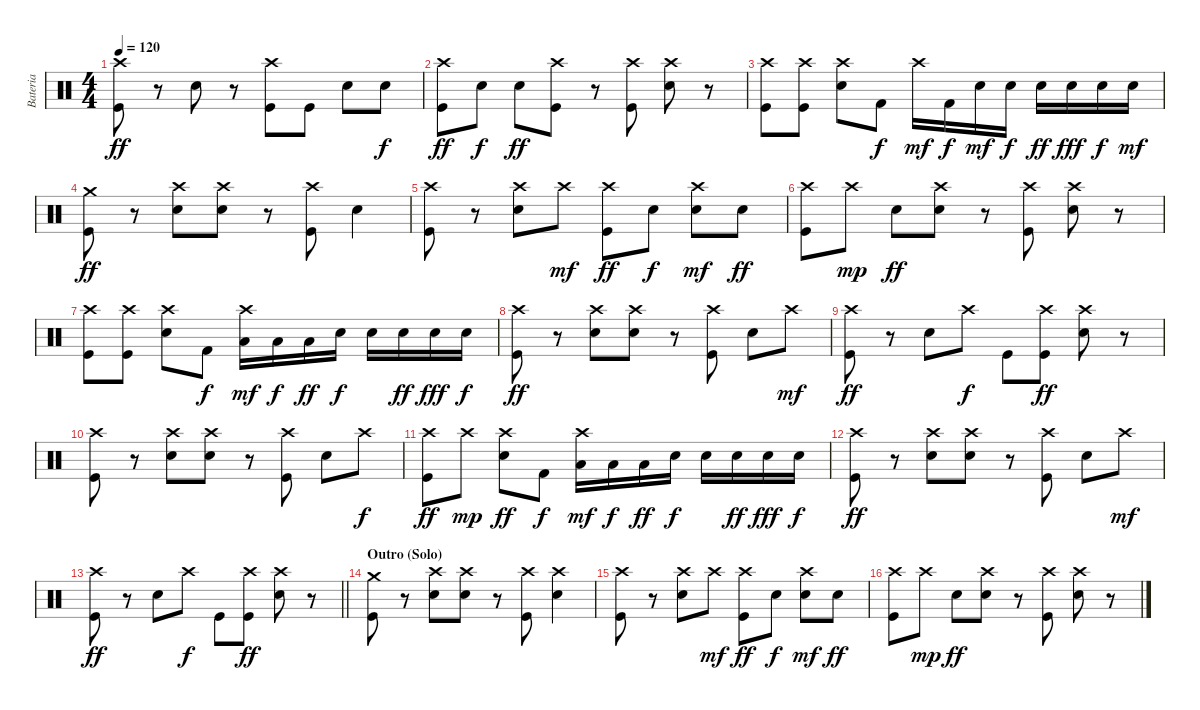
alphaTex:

\track ("Bateria" "Bateria") {instrument percussion}
\staff {score}
\articulation defaults
\ts (4 4)
\tempo 120
\clef neutral
\ks c
("Crash high (hit)" "Kick (hit)").8{dy ff} r.8 "Snare (hit) 2".8 r.8 ("Crash high (hit)" "Kick (hit)").8 "Kick (hit)".8 "Snare (hit) 2".8 "Snare (hit) 2".8{dy f} |
("Crash high (hit)" "Kick (hit)").8{dy ff} "Snare (hit) 2".8{dy f} "Snare (hit) 2".8{dy ff} ("Crash high (hit)" "Kick (hit)").8 r.8 ("Crash high (hit)" "Kick (hit)").8 ("Crash high (hit)" "Snare (hit) 2").8 r.8 |
("Crash high (hit)" "Kick (hit)").8 ("Crash high (hit)" "Kick (hit)").8 ("Crash high (hit)" "Snare (hit) 2").8 "Kick (hit) 2".8{dy f} "Crash high (hit)".16{dy mf} "Kick (hit) 2".16{dy f} "Snare (hit) 2".16{dy mf} "Snare (hit) 2".16{dy f} "Snare (hit) 2".16{dy ff} "Snare (hit) 2".16{dy fff} "Snare (hit) 2".16{dy f} "Snare (hit) 2".16{dy mf} |
("Crash medium (hit)" "Kick (hit)").8{dy ff} r.8 ("Crash high (hit)" "Snare (hit) 2").8 ("Crash high (hit)" "Snare (hit) 2").8 r.8 ("Crash high (hit)" "Kick (hit)").8 "Snare (hit) 2".4 |
("Crash high (hit)" "Kick (hit)").8 r.8 ("Crash high (hit)" "Snare (hit) 2").8 "Crash high (hit)".8{dy mf} ("Crash high (hit)" "Kick (hit)").8{dy ff} "Snare (hit) 2".8{dy f} ("Crash high (hit)" "Snare (hit) 2").8{dy mf} "Snare (hit) 2".8{dy ff} |
("Crash high (hit)" "Kick (hit)").8 "Crash high (hit)".8{dy mp} "Snare (hit) 2".8{dy ff} ("Crash high (hit)" "Snare (hit) 2").8 r.8 ("Crash high (hit)" "Kick (hit)").8 ("Crash high (hit)" "Snare (hit) 2").8 r.8 |
("Crash high (hit)" "Kick (hit)").8 ("Crash high (hit)" "Kick (hit)").8 ("Crash high (hit)" "Snare (hit) 2").8 "Kick (hit) 2".8{dy f} ("Crash high (hit)" "Low Tom (hit)").16{dy mf} "Low Tom (hit)".16{dy f} "Low Tom (hit)".16{dy ff} "Snare (hit) 2".16{dy f} "Snare (hit) 2".16 "Snare (hit) 2".16{dy ff} "Snare (hit) 2".16{dy fff} "Snare (hit) 2".16{dy f} |
("Crash high (hit)" "Kick (hit)").8{dy ff} r.8 ("Crash high (hit)" "Snare (hit) 2").8 ("Crash high (hit)" "Snare (hit) 2").8 r.8 ("Crash high (hit)" "Kick (hit)").8 "Snare (hit) 2".8 "Crash high (hit)".8{dy mf} |
("Crash high (hit)" "Kick (hit)").8{dy ff} r.8 "Snare (hit) 2".8 "Crash high (hit)".8{dy f} "Kick (hit)".8 ("Crash high (hit)" "Kick (hit)").8{dy ff} ("Crash high (hit)" "Snare (hit) 2").8 r.8 |
("Crash high (hit)" "Kick (hit)").8 r.8 ("Crash high (hit)" "Snare (hit) 2").8 ("Crash high (hit)" "Snare (hit) 2").8 r.8 ("Crash high (hit)" "Kick (hit)").8 "Snare (hit) 2".8 "Crash high (hit)".8{dy f} |
("Crash high (hit)" "Kick (hit)").8{dy ff} "Crash high (hit)".8{dy mp} ("Crash high (hit)" "Snare (hit) 2").8{dy ff} "Kick (hit) 2".8{dy f} ("Crash high (hit)" "Low Tom (hit)").16{dy mf} "Low Tom (hit)".16{dy f} "Low Tom (hit)".16{dy ff} "Snare (hit) 2".16{dy f} "Snare (hit) 2".16 "Snare (hit) 2".16{dy ff} "Snare (hit) 2".16{dy fff} "Snare (hit) 2".16{dy f} |
("Crash high (hit)" "Kick (hit)").8{dy ff} r.8 ("Crash high (hit)" "Snare (hit) 2").8 ("Crash high (hit)" "Snare (hit) 2").8 r.8 ("Crash high (hit)" "Kick (hit)").8 "Snare (hit) 2".8 "Crash high (hit)".8{dy mf} |
\barLineRight lightlight
("Crash high (hit)" "Kick (hit)").8{dy ff} r.8 "Snare (hit) 2".8 "Crash high (hit)".8{dy f} "Kick (hit)".8 ("Crash high (hit)" "Kick (hit)").8{dy ff} ("Crash high (hit)" "Snare (hit) 2").8 r.8 |
\section ("" "Outro (Solo)")
("Crash medium (hit)" "Kick (hit)").8 r.8 ("Crash high (hit)" "Snare (hit) 2").8 ("Crash high (hit)" "Snare (hit) 2").8 r.8 ("Crash high (hit)" "Kick (hit)").8 ("Crash high (hit)" "Snare (hit) 2").4 |
("Crash high (hit)" "Kick (hit)").8 r.8 ("Crash high (hit)" "Snare (hit) 2").8 "Crash high (hit)".8{dy mf} ("Crash high (hit)" "Kick (hit)").8{dy ff} "Snare (hit) 2".8{dy f} ("Crash high (hit)" "Snare (hit) 2").8{dy mf} "Snare (hit) 2".8{dy ff} |
("Crash high (hit)" "Kick (hit)").8 "Crash high (hit)".8{dy mp} "Snare (hit) 2".8{dy ff} ("Crash high (hit)" "Snare (hit) 2").8 r.8 ("Crash high (hit)" "Kick (hit)").8 ("Crash high (hit)" "Snare (hit) 2").8 r.8
